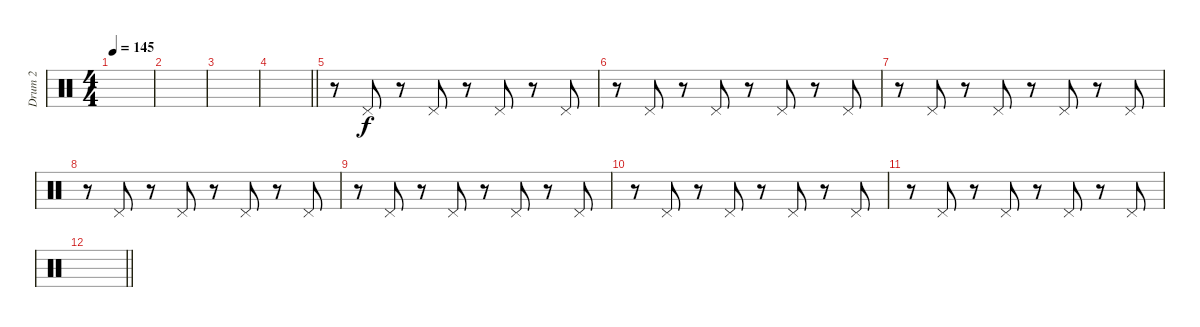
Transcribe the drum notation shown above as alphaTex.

\track ("Drum 2" "Drum 2") {instrument percussion}
\staff {score}
\articulation defaults
\ts (4 4)
\tempo 145
\clef neutral
\ks c
|
|
|
\barLineRight lightlight
|
r.8 "Pedal Hi-Hat (hit)".8 r.8 "Pedal Hi-Hat (hit)".8 r.8 "Pedal Hi-Hat (hit)".8 r.8 "Pedal Hi-Hat (hit)".8 |
r.8 "Pedal Hi-Hat (hit)".8 r.8 "Pedal Hi-Hat (hit)".8 r.8 "Pedal Hi-Hat (hit)".8 r.8 "Pedal Hi-Hat (hit)".8 |
r.8 "Pedal Hi-Hat (hit)".8 r.8 "Pedal Hi-Hat (hit)".8 r.8 "Pedal Hi-Hat (hit)".8 r.8 "Pedal Hi-Hat (hit)".8 |
r.8 "Pedal Hi-Hat (hit)".8 r.8 "Pedal Hi-Hat (hit)".8 r.8 "Pedal Hi-Hat (hit)".8 r.8 "Pedal Hi-Hat (hit)".8 |
r.8 "Pedal Hi-Hat (hit)".8 r.8 "Pedal Hi-Hat (hit)".8 r.8 "Pedal Hi-Hat (hit)".8 r.8 "Pedal Hi-Hat (hit)".8 |
r.8 "Pedal Hi-Hat (hit)".8 r.8 "Pedal Hi-Hat (hit)".8 r.8 "Pedal Hi-Hat (hit)".8 r.8 "Pedal Hi-Hat (hit)".8 |
r.8 "Pedal Hi-Hat (hit)".8 r.8 "Pedal Hi-Hat (hit)".8 r.8 "Pedal Hi-Hat (hit)".8 r.8 "Pedal Hi-Hat (hit)".8 |
\barLineRight lightlight
